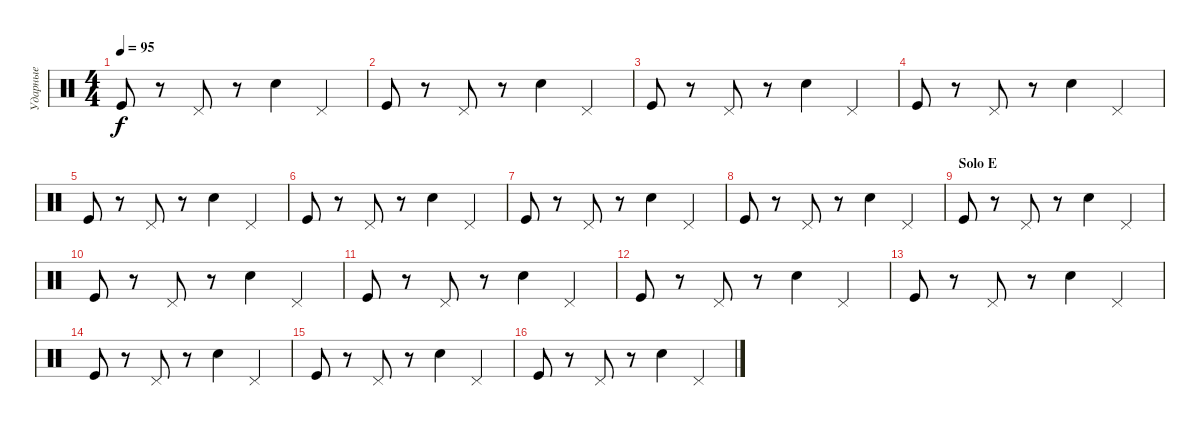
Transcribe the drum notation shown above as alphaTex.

\track ("Ударные" "Ударные") {instrument percussion}
\staff {score}
\articulation defaults
\ts (4 4)
\tempo 95
\clef neutral
\ks c "Kick (hit)".8{dy f}
r.8 "Pedal Hi-Hat (hit)".8 r.8 "Electric Snare (hit)".4 "Pedal Hi-Hat (hit)".4 |
"Kick (hit)".8 r.8 "Pedal Hi-Hat (hit)".8 r.8 "Electric Snare (hit)".4 "Pedal Hi-Hat (hit)".4 |
"Kick (hit)".8 r.8 "Pedal Hi-Hat (hit)".8 r.8 "Electric Snare (hit)".4 "Pedal Hi-Hat (hit)".4 |
"Kick (hit)".8 r.8 "Pedal Hi-Hat (hit)".8 r.8 "Electric Snare (hit)".4 "Pedal Hi-Hat (hit)".4 |
\section ("" "")
"Kick (hit)".8 r.8 "Pedal Hi-Hat (hit)".8 r.8 "Electric Snare (hit)".4 "Pedal Hi-Hat (hit)".4 |
"Kick (hit)".8 r.8 "Pedal Hi-Hat (hit)".8 r.8 "Electric Snare (hit)".4 "Pedal Hi-Hat (hit)".4 |
"Kick (hit)".8 r.8 "Pedal Hi-Hat (hit)".8 r.8 "Electric Snare (hit)".4 "Pedal Hi-Hat (hit)".4 |
"Kick (hit)".8 r.8 "Pedal Hi-Hat (hit)".8 r.8 "Electric Snare (hit)".4 "Pedal Hi-Hat (hit)".4 |
\section ("" "Solo Е")
"Kick (hit)".8 r.8 "Pedal Hi-Hat (hit)".8 r.8 "Electric Snare (hit)".4 "Pedal Hi-Hat (hit)".4 |
"Kick (hit)".8 r.8 "Pedal Hi-Hat (hit)".8 r.8 "Electric Snare (hit)".4 "Pedal Hi-Hat (hit)".4 |
"Kick (hit)".8 r.8 "Pedal Hi-Hat (hit)".8 r.8 "Electric Snare (hit)".4 "Pedal Hi-Hat (hit)".4 |
"Kick (hit)".8 r.8 "Pedal Hi-Hat (hit)".8 r.8 "Electric Snare (hit)".4 "Pedal Hi-Hat (hit)".4 |
"Kick (hit)".8 r.8 "Pedal Hi-Hat (hit)".8 r.8 "Electric Snare (hit)".4 "Pedal Hi-Hat (hit)".4 |
"Kick (hit)".8 r.8 "Pedal Hi-Hat (hit)".8 r.8 "Electric Snare (hit)".4 "Pedal Hi-Hat (hit)".4 |
"Kick (hit)".8 r.8 "Pedal Hi-Hat (hit)".8 r.8 "Electric Snare (hit)".4 "Pedal Hi-Hat (hit)".4 |
"Kick (hit)".8 r.8 "Pedal Hi-Hat (hit)".8 r.8 "Electric Snare (hit)".4 "Pedal Hi-Hat (hit)".4
